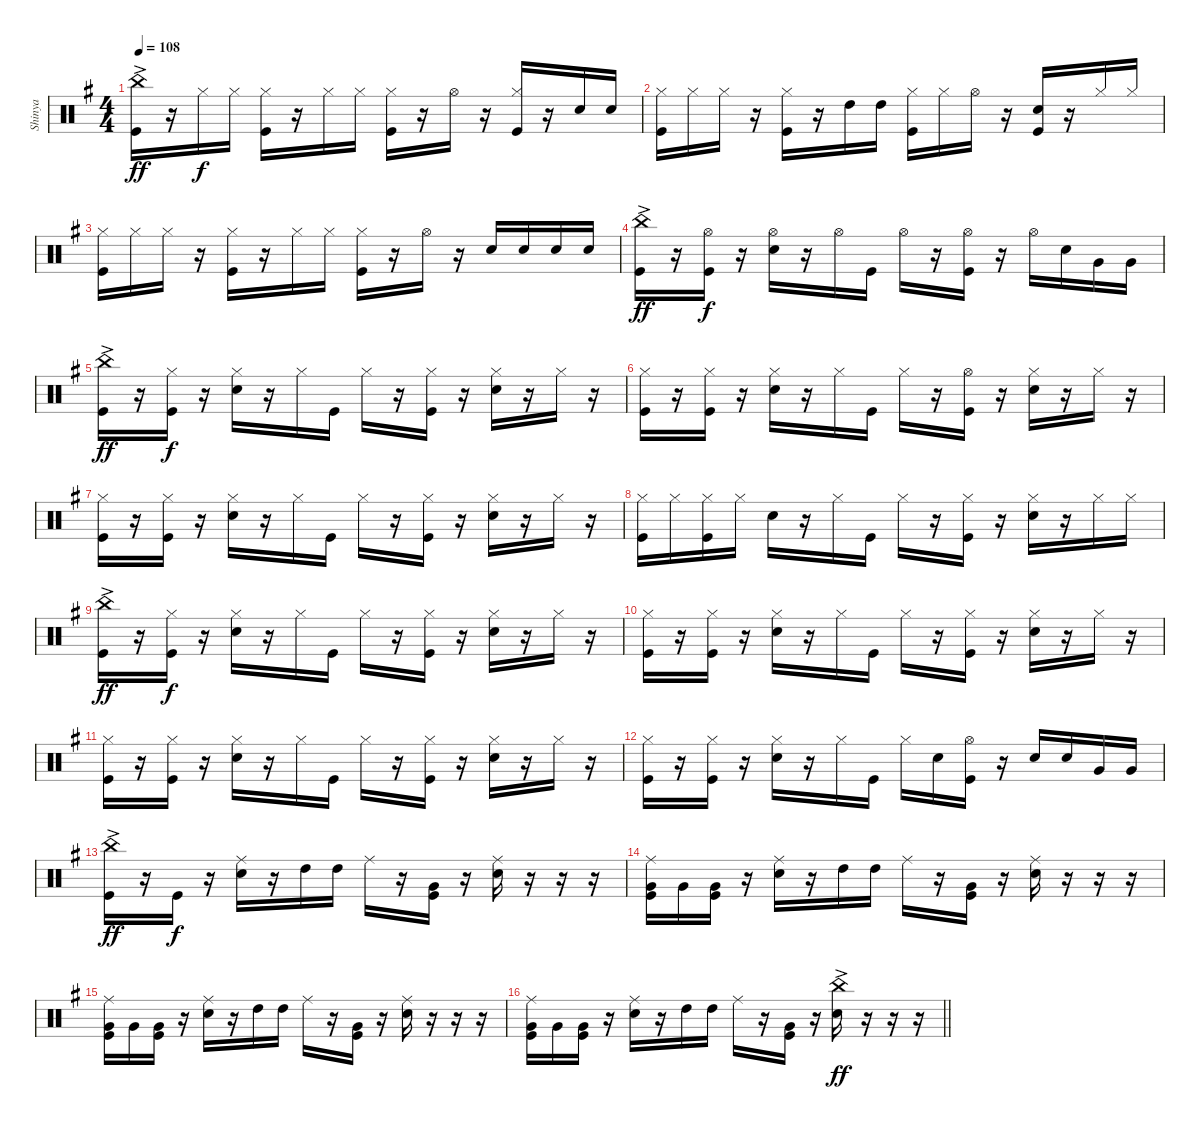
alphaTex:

\track ("Shinya" "Shinya") {instrument percussion}
\staff {score}
\articulation defaults
\ts (4 4)
\tempo 108
\clef neutral
\ks g
("China (hit)"{ac} "Kick (hit)").16{dy ff} r.16 "Hi-Hat (closed)".16{dy f} "Hi-Hat (closed)".16 ("Hi-Hat (closed)" "Kick (hit)").16 r.16 "Hi-Hat (closed)".16 "Hi-Hat (closed)".16 ("Hi-Hat (closed)" "Kick (hit)").16 r.16 "Hi-Hat (open)".16 r.16 ("Hi-Hat (closed)" "Kick (hit)").16 r.16 "Electric Snare (hit)".16{beam Up} "Electric Snare (hit)".16{beam Up} |
("Hi-Hat (closed)" "Kick (hit)").16 "Hi-Hat (closed)".16 "Hi-Hat (closed)".16 r.16 ("Hi-Hat (closed)" "Kick (hit)").16 r.16 "High Tom (hit)".16 "High Tom (hit)".16 ("Hi-Hat (closed)" "Kick (hit)").16 "Hi-Hat (closed)".16 "Hi-Hat (open)".16 r.16 ("Electric Snare (hit)" "Kick (hit)").16 r.16 "Hi-Hat (closed)".16{beam Up} "Hi-Hat (closed)".16 |
("Hi-Hat (closed)" "Kick (hit)").16 "Hi-Hat (closed)".16 "Hi-Hat (closed)".16 r.16 ("Hi-Hat (closed)" "Kick (hit)").16 r.16 "Hi-Hat (closed)".16 "Hi-Hat (closed)".16 ("Hi-Hat (closed)" "Kick (hit)").16 r.16 "Hi-Hat (open)".16 r.16 "Electric Snare (hit)".16 "Electric Snare (hit)".16 "Electric Snare (hit)".16{beam Up} "Electric Snare (hit)".16 |
("China (hit)"{ac} "Kick (hit)").16{dy ff} r.16 ("Hi-Hat (open)" "Kick (hit)").16{dy f} r.16 ("Hi-Hat (open)" "Electric Snare (hit)").16 r.16 "Hi-Hat (open)".16 "Kick (hit)".16 "Hi-Hat (open)".16 r.16 ("Hi-Hat (open)" "Kick (hit)").16 r.16 "Hi-Hat (open)".16 "Electric Snare (hit)".16 "Very Low Tom (hit)".16 "Very Low Tom (hit)".16 |
("China (hit)"{ac} "Kick (hit)").16{dy ff} r.16 ("Hi-Hat (closed)" "Kick (hit)").16{dy f} r.16 ("Hi-Hat (closed)" "Electric Snare (hit)").16 r.16 "Hi-Hat (closed)".16 "Kick (hit)".16 "Hi-Hat (closed)".16 r.16 ("Hi-Hat (closed)" "Kick (hit)").16 r.16 ("Hi-Hat (closed)" "Electric Snare (hit)").16 r.16 "Hi-Hat (closed)".16 r.16 |
("Hi-Hat (closed)" "Kick (hit)").16 r.16 ("Hi-Hat (closed)" "Kick (hit)").16 r.16 ("Hi-Hat (closed)" "Electric Snare (hit)").16 r.16 "Hi-Hat (closed)".16 "Kick (hit)".16 "Hi-Hat (closed)".16 r.16 ("Hi-Hat (open)" "Kick (hit)").16 r.16 ("Hi-Hat (closed)" "Electric Snare (hit)").16 r.16 "Hi-Hat (closed)".16 r.16 |
("Hi-Hat (closed)" "Kick (hit)").16 r.16 ("Hi-Hat (closed)" "Kick (hit)").16 r.16 ("Hi-Hat (closed)" "Electric Snare (hit)").16 r.16 "Hi-Hat (closed)".16 "Kick (hit)".16 "Hi-Hat (closed)".16 r.16 ("Hi-Hat (closed)" "Kick (hit)").16 r.16 ("Hi-Hat (closed)" "Electric Snare (hit)").16 r.16 "Hi-Hat (closed)".16 r.16 |
("Hi-Hat (closed)" "Kick (hit)").16 "Hi-Hat (closed)".16 ("Hi-Hat (closed)" "Kick (hit)").16 "Hi-Hat (closed)".16 "Electric Snare (hit)".16 r.16 "Hi-Hat (closed)".16 "Kick (hit)".16 "Hi-Hat (closed)".16 r.16 ("Hi-Hat (closed)" "Kick (hit)").16 r.16 ("Hi-Hat (closed)" "Electric Snare (hit)").16 r.16 "Hi-Hat (closed)".16 "Hi-Hat (closed)".16 |
("China (hit)"{ac} "Kick (hit)").16{dy ff} r.16 ("Hi-Hat (closed)" "Kick (hit)").16{dy f} r.16 ("Hi-Hat (closed)" "Electric Snare (hit)").16 r.16 "Hi-Hat (closed)".16 "Kick (hit)".16 "Hi-Hat (closed)".16 r.16 ("Hi-Hat (closed)" "Kick (hit)").16 r.16 ("Hi-Hat (closed)" "Electric Snare (hit)").16 r.16 "Hi-Hat (closed)".16 r.16 |
("Hi-Hat (closed)" "Kick (hit)").16 r.16 ("Hi-Hat (closed)" "Kick (hit)").16 r.16 ("Hi-Hat (closed)" "Electric Snare (hit)").16 r.16 "Hi-Hat (closed)".16 "Kick (hit)".16 "Hi-Hat (closed)".16 r.16 ("Hi-Hat (closed)" "Kick (hit)").16 r.16 ("Hi-Hat (closed)" "Electric Snare (hit)").16 r.16 "Hi-Hat (closed)".16 r.16 |
("Hi-Hat (closed)" "Kick (hit)").16 r.16 ("Hi-Hat (closed)" "Kick (hit)").16 r.16 ("Hi-Hat (closed)" "Electric Snare (hit)").16 r.16 "Hi-Hat (closed)".16 "Kick (hit)".16 "Hi-Hat (closed)".16 r.16 ("Hi-Hat (closed)" "Kick (hit)").16 r.16 ("Hi-Hat (closed)" "Electric Snare (hit)").16 r.16 "Hi-Hat (closed)".16 r.16 |
("Hi-Hat (closed)" "Kick (hit)").16 r.16 ("Hi-Hat (closed)" "Kick (hit)").16 r.16 ("Hi-Hat (closed)" "Electric Snare (hit)").16 r.16 "Hi-Hat (closed)".16 "Kick (hit)".16 "Hi-Hat (closed)".16 "Electric Snare (hit)".16 ("Hi-Hat (open)" "Kick (hit)").16 r.16 "Electric Snare (hit)".16{beam Up} "Electric Snare (hit)".16{beam Up} "Very Low Tom (hit)".16{beam Up} "Very Low Tom (hit)".16{beam Up} |
("China (hit)"{ac} "Kick (hit)").16{dy ff} r.16 "Kick (hit)".16{dy f} r.16 ("Ride (middle)" "Electric Snare (hit)").16 r.16 "High Tom (hit)".16 "High Tom (hit)".16 "Ride (middle)".16 r.16 ("Very Low Tom (hit)" "Kick (hit)").16 r.16 ("Ride (middle)" "Electric Snare (hit)").16 r.16 r.16 r.16 |
("Ride (middle)" "Very Low Tom (hit)" "Kick (hit)").16 "Very Low Tom (hit)".16 ("Very Low Tom (hit)" "Kick (hit)").16 r.16 ("Ride (middle)" "Electric Snare (hit)").16 r.16 "High Tom (hit)".16 "High Tom (hit)".16 "Ride (middle)".16 r.16 ("Very Low Tom (hit)" "Kick (hit)").16 r.16 ("Ride (middle)" "Electric Snare (hit)").16 r.16 r.16 r.16 |
("Ride (middle)" "Very Low Tom (hit)" "Kick (hit)").16 "Very Low Tom (hit)".16 ("Very Low Tom (hit)" "Kick (hit)").16 r.16 ("Ride (middle)" "Electric Snare (hit)").16 r.16 "High Tom (hit)".16 "High Tom (hit)".16 "Ride (middle)".16 r.16 ("Very Low Tom (hit)" "Kick (hit)").16 r.16 ("Ride (middle)" "Electric Snare (hit)").16 r.16 r.16 r.16 |
\barLineRight lightlight
("Ride (middle)" "Very Low Tom (hit)" "Kick (hit)").16 "Very Low Tom (hit)".16 ("Very Low Tom (hit)" "Kick (hit)").16 r.16 ("Ride (middle)" "Electric Snare (hit)").16 r.16 "High Tom (hit)".16 "High Tom (hit)".16 "Ride (middle)".16 r.16 ("Very Low Tom (hit)" "Kick (hit)").16 r.16 ("China (hit)"{ac} "Electric Snare (hit)").16{dy ff} r.16 r.16 r.16
